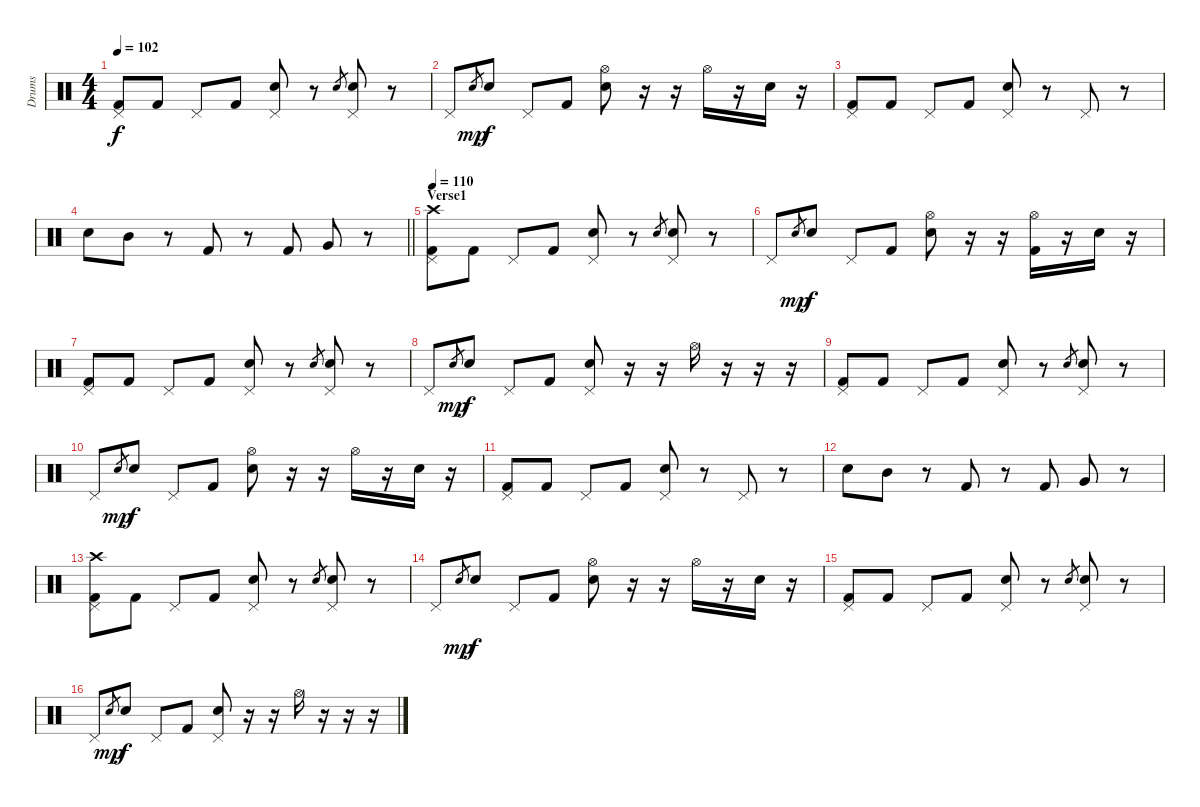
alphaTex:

\track ("Drums" "Drums") {instrument percussion}
\staff {score}
\articulation defaults
\ts (4 4)
\tempo 102
\clef neutral
\ks c
("Kick (hit) 2" "Pedal Hi-Hat (hit)").8{dy f} "Kick (hit) 2".8 "Pedal Hi-Hat (hit)".8 "Kick (hit) 2".8 ("Snare (hit) 2" "Pedal Hi-Hat (hit)").8 r.8 "Snare (hit) 2".8{gr} ("Snare (hit) 2" "Pedal Hi-Hat (hit)").8 r.8 |
"Pedal Hi-Hat (hit)".8 "Electric Snare (hit)".8{gr dy mp} "Snare (hit) 2".8{dy f} "Pedal Hi-Hat (hit)".8 "Kick (hit) 2".8 ("Snare (hit) 2" "Hi-Hat (open)").8 r.16 r.16 "Hi-Hat (open)".16 r.16 "Snare (hit) 2".16 r.16 |
("Kick (hit) 2" "Pedal Hi-Hat (hit)").8 "Kick (hit) 2".8 "Pedal Hi-Hat (hit)".8 "Kick (hit) 2".8 ("Snare (hit) 2" "Pedal Hi-Hat (hit)").8 r.8 "Pedal Hi-Hat (hit)".8 r.8 |
\barLineRight lightlight "Snare (hit) 2".8 "Mid Tom (hit)".8
r.8 "Kick (hit) 2".8 r.8 "Kick (hit) 2".8 "Very Low Tom (hit)".8 r.8 |
\section ("" "Verse1")
\tempo 110
("Crash high (hit)" "Kick (hit) 2" "Pedal Hi-Hat (hit)").8 "Kick (hit) 2".8 "Pedal Hi-Hat (hit)".8 "Kick (hit) 2".8 ("Snare (hit) 2" "Pedal Hi-Hat (hit)").8 r.8 "Snare (hit) 2".8{gr} ("Snare (hit) 2" "Pedal Hi-Hat (hit)").8 r.8 |
"Pedal Hi-Hat (hit)".8 "Electric Snare (hit)".8{gr dy mp} "Snare (hit) 2".8{dy f} "Pedal Hi-Hat (hit)".8 "Kick (hit) 2".8 ("Snare (hit) 2" "Hi-Hat (open)").8 r.16 r.16 ("Kick (hit) 2" "Hi-Hat (open)").16 r.16 "Snare (hit) 2".16 r.16 |
("Kick (hit) 2" "Pedal Hi-Hat (hit)").8 "Kick (hit) 2".8 "Pedal Hi-Hat (hit)".8 "Kick (hit) 2".8 ("Snare (hit) 2" "Pedal Hi-Hat (hit)").8 r.8 "Snare (hit) 2".8{gr} ("Snare (hit) 2" "Pedal Hi-Hat (hit)").8 r.8 |
"Pedal Hi-Hat (hit)".8 "Electric Snare (hit)".8{gr dy mp} "Snare (hit) 2".8{dy f} "Pedal Hi-Hat (hit)".8 "Kick (hit) 2".8 ("Snare (hit) 2" "Pedal Hi-Hat (hit)").8 r.16 r.16 "Hi-Hat (open)".16 r.16 r.16 r.16 |
("Kick (hit) 2" "Pedal Hi-Hat (hit)").8 "Kick (hit) 2".8 "Pedal Hi-Hat (hit)".8 "Kick (hit) 2".8 ("Snare (hit) 2" "Pedal Hi-Hat (hit)").8 r.8 "Snare (hit) 2".8{gr} ("Snare (hit) 2" "Pedal Hi-Hat (hit)").8 r.8 |
"Pedal Hi-Hat (hit)".8 "Electric Snare (hit)".8{gr dy mp} "Snare (hit) 2".8{dy f} "Pedal Hi-Hat (hit)".8 "Kick (hit) 2".8 ("Snare (hit) 2" "Hi-Hat (open)").8 r.16 r.16 "Hi-Hat (open)".16 r.16 "Snare (hit) 2".16 r.16 |
("Kick (hit) 2" "Pedal Hi-Hat (hit)").8 "Kick (hit) 2".8 "Pedal Hi-Hat (hit)".8 "Kick (hit) 2".8 ("Snare (hit) 2" "Pedal Hi-Hat (hit)").8 r.8 "Pedal Hi-Hat (hit)".8 r.8 |
"Snare (hit) 2".8 "Mid Tom (hit)".8 r.8 "Kick (hit) 2".8 r.8 "Kick (hit) 2".8 "Very Low Tom (hit)".8 r.8 |
("Crash high (hit)" "Kick (hit) 2" "Pedal Hi-Hat (hit)").8 "Kick (hit) 2".8 "Pedal Hi-Hat (hit)".8 "Kick (hit) 2".8 ("Snare (hit) 2" "Pedal Hi-Hat (hit)").8 r.8 "Snare (hit) 2".8{gr} ("Snare (hit) 2" "Pedal Hi-Hat (hit)").8 r.8 |
"Pedal Hi-Hat (hit)".8 "Electric Snare (hit)".8{gr dy mp} "Snare (hit) 2".8{dy f} "Pedal Hi-Hat (hit)".8 "Kick (hit) 2".8 ("Snare (hit) 2" "Hi-Hat (open)").8 r.16 r.16 "Hi-Hat (open)".16 r.16 "Snare (hit) 2".16 r.16 |
("Kick (hit) 2" "Pedal Hi-Hat (hit)").8 "Kick (hit) 2".8 "Pedal Hi-Hat (hit)".8 "Kick (hit) 2".8 ("Snare (hit) 2" "Pedal Hi-Hat (hit)").8 r.8 "Snare (hit) 2".8{gr} ("Snare (hit) 2" "Pedal Hi-Hat (hit)").8 r.8 |
"Pedal Hi-Hat (hit)".8 "Electric Snare (hit)".8{gr dy mp} "Snare (hit) 2".8{dy f} "Pedal Hi-Hat (hit)".8 "Kick (hit) 2".8 ("Snare (hit) 2" "Pedal Hi-Hat (hit)").8 r.16 r.16 "Hi-Hat (open)".16 r.16 r.16 r.16
